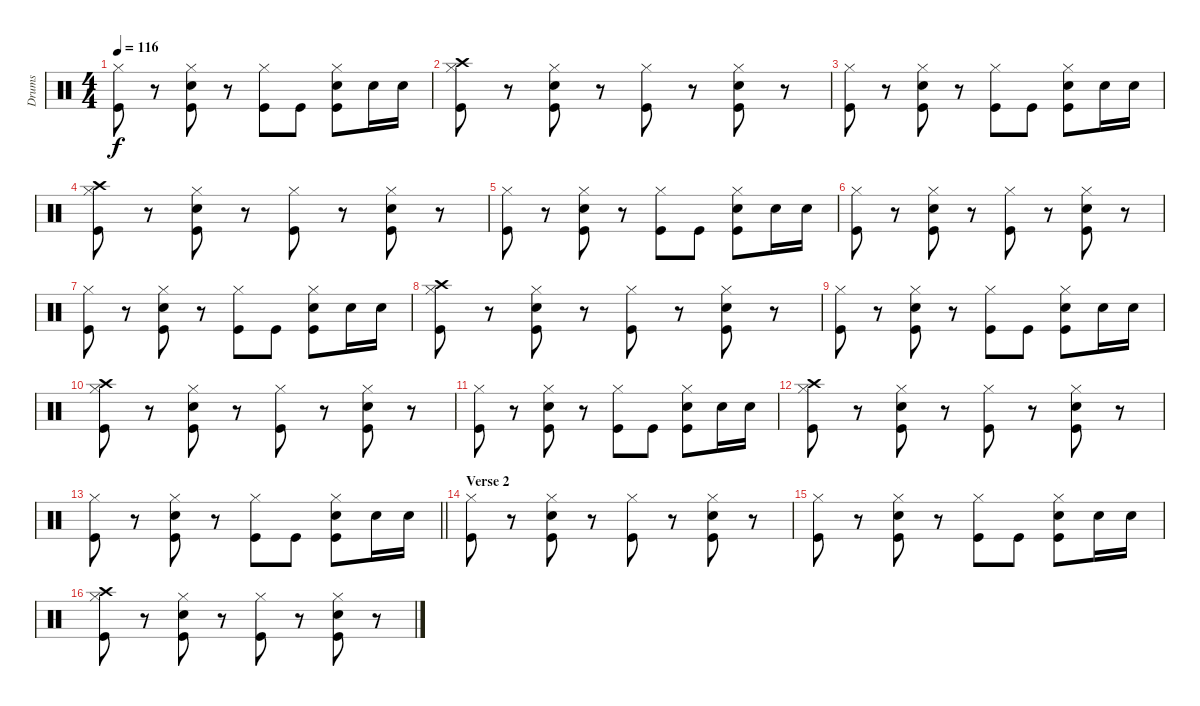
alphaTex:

\track ("Drums" "Drums") {instrument percussion}
\staff {score}
\articulation defaults
\ts (4 4)
\tempo 116
\clef neutral
\ks c
("Hi-Hat (closed)" "Kick (hit)").8{dy f} r.8 ("Hi-Hat (closed)" "Snare (hit) 2" "Kick (hit)").8 r.8 ("Hi-Hat (closed)" "Kick (hit)").8 "Kick (hit)".8 ("Hi-Hat (closed)" "Snare (hit) 2" "Kick (hit)").8 "Snare (hit) 2".16 "Snare (hit) 2".16 |
("Crash high (hit)" "Hi-Hat (closed)" "Kick (hit)").8 r.8 ("Hi-Hat (closed)" "Snare (hit) 2" "Kick (hit)").8 r.8 ("Hi-Hat (closed)" "Kick (hit)").8 r.8 ("Hi-Hat (closed)" "Snare (hit) 2" "Kick (hit)").8 r.8 |
("Hi-Hat (closed)" "Kick (hit)").8 r.8 ("Hi-Hat (closed)" "Snare (hit) 2" "Kick (hit)").8 r.8 ("Hi-Hat (closed)" "Kick (hit)").8 "Kick (hit)".8 ("Hi-Hat (closed)" "Snare (hit) 2" "Kick (hit)").8 "Snare (hit) 2".16 "Snare (hit) 2".16 |
("Crash high (hit)" "Hi-Hat (closed)" "Kick (hit)").8 r.8 ("Hi-Hat (closed)" "Snare (hit) 2" "Kick (hit)").8 r.8 ("Hi-Hat (closed)" "Kick (hit)").8 r.8 ("Hi-Hat (closed)" "Snare (hit) 2" "Kick (hit)").8 r.8 |
("Hi-Hat (closed)" "Kick (hit)").8 r.8 ("Hi-Hat (closed)" "Snare (hit) 2" "Kick (hit)").8 r.8 ("Hi-Hat (closed)" "Kick (hit)").8 "Kick (hit)".8 ("Hi-Hat (closed)" "Snare (hit) 2" "Kick (hit)").8 "Snare (hit) 2".16 "Snare (hit) 2".16 |
("Hi-Hat (closed)" "Kick (hit)").8 r.8 ("Hi-Hat (closed)" "Snare (hit) 2" "Kick (hit)").8 r.8 ("Hi-Hat (closed)" "Kick (hit)").8 r.8 ("Hi-Hat (closed)" "Snare (hit) 2" "Kick (hit)").8 r.8 |
("Hi-Hat (closed)" "Kick (hit)").8 r.8 ("Hi-Hat (closed)" "Snare (hit) 2" "Kick (hit)").8 r.8 ("Hi-Hat (closed)" "Kick (hit)").8 "Kick (hit)".8 ("Hi-Hat (closed)" "Snare (hit) 2" "Kick (hit)").8 "Snare (hit) 2".16 "Snare (hit) 2".16 |
("Crash high (hit)" "Hi-Hat (closed)" "Kick (hit)").8 r.8 ("Hi-Hat (closed)" "Snare (hit) 2" "Kick (hit)").8 r.8 ("Hi-Hat (closed)" "Kick (hit)").8 r.8 ("Hi-Hat (closed)" "Snare (hit) 2" "Kick (hit)").8 r.8 |
("Hi-Hat (closed)" "Kick (hit)").8 r.8 ("Hi-Hat (closed)" "Snare (hit) 2" "Kick (hit)").8 r.8 ("Hi-Hat (closed)" "Kick (hit)").8 "Kick (hit)".8 ("Hi-Hat (closed)" "Snare (hit) 2" "Kick (hit)").8 "Snare (hit) 2".16 "Snare (hit) 2".16 |
("Crash high (hit)" "Hi-Hat (closed)" "Kick (hit)").8 r.8 ("Hi-Hat (closed)" "Snare (hit) 2" "Kick (hit)").8 r.8 ("Hi-Hat (closed)" "Kick (hit)").8 r.8 ("Hi-Hat (closed)" "Snare (hit) 2" "Kick (hit)").8 r.8 |
("Hi-Hat (closed)" "Kick (hit)").8 r.8 ("Hi-Hat (closed)" "Snare (hit) 2" "Kick (hit)").8 r.8 ("Hi-Hat (closed)" "Kick (hit)").8 "Kick (hit)".8 ("Hi-Hat (closed)" "Snare (hit) 2" "Kick (hit)").8 "Snare (hit) 2".16 "Snare (hit) 2".16 |
("Crash high (hit)" "Hi-Hat (closed)" "Kick (hit)").8 r.8 ("Hi-Hat (closed)" "Snare (hit) 2" "Kick (hit)").8 r.8 ("Hi-Hat (closed)" "Kick (hit)").8 r.8 ("Hi-Hat (closed)" "Snare (hit) 2" "Kick (hit)").8 r.8 |
\barLineRight lightlight
("Hi-Hat (closed)" "Kick (hit)").8 r.8 ("Hi-Hat (closed)" "Snare (hit) 2" "Kick (hit)").8 r.8 ("Hi-Hat (closed)" "Kick (hit)").8 "Kick (hit)".8 ("Hi-Hat (closed)" "Snare (hit) 2" "Kick (hit)").8 "Snare (hit) 2".16 "Snare (hit) 2".16 |
\section ("" "Verse 2")
("Hi-Hat (closed)" "Kick (hit)").8 r.8 ("Hi-Hat (closed)" "Snare (hit) 2" "Kick (hit)").8 r.8 ("Hi-Hat (closed)" "Kick (hit)").8 r.8 ("Hi-Hat (closed)" "Snare (hit) 2" "Kick (hit)").8 r.8 |
("Hi-Hat (closed)" "Kick (hit)").8 r.8 ("Hi-Hat (closed)" "Snare (hit) 2" "Kick (hit)").8 r.8 ("Hi-Hat (closed)" "Kick (hit)").8 "Kick (hit)".8 ("Hi-Hat (closed)" "Snare (hit) 2" "Kick (hit)").8 "Snare (hit) 2".16 "Snare (hit) 2".16 |
("Crash high (hit)" "Hi-Hat (closed)" "Kick (hit)").8 r.8 ("Hi-Hat (closed)" "Snare (hit) 2" "Kick (hit)").8 r.8 ("Hi-Hat (closed)" "Kick (hit)").8 r.8 ("Hi-Hat (closed)" "Snare (hit) 2" "Kick (hit)").8 r.8
